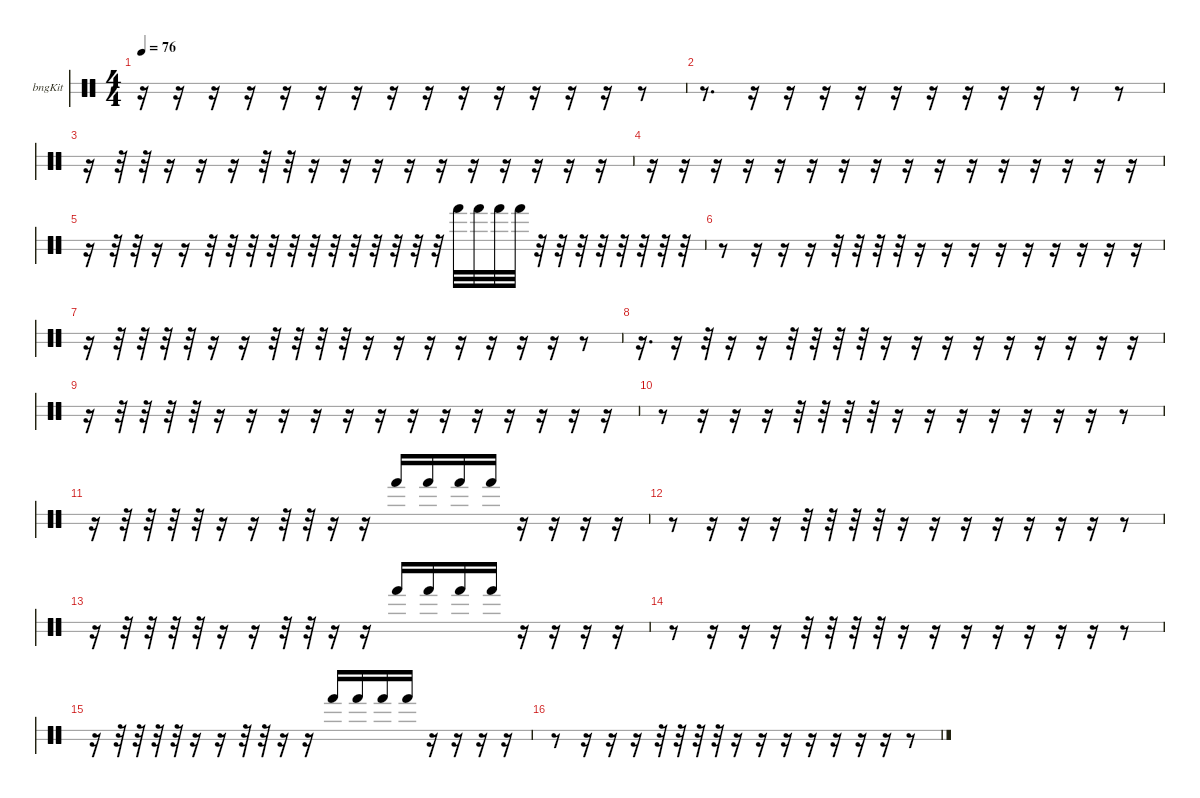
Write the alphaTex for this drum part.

\hideDynamics
\bracketExtendMode nobrackets
\firstSystemTrackNameOrientation horizontal
\otherSystemsTrackNameOrientation horizontal
\track ("Bongos" "bngKit") {instrument percussion}
\staff {score 2}
\articulation defaults
\ts (4 4)
\tempo 76
\clef neutral
\ks c
r.16{dy f beam Down} r.16{beam Down} r.16{beam Down} r.16{beam Down} r.16{beam Down} r.16{beam Down} r.16{beam Down} r.16{beam Down} r.16{beam Down} r.16{beam Down} r.16{beam Down} r.16{beam Down} r.16{beam Down} r.16{beam Down} r.8{beam Down} |
r.8{d beam Down} r.16{beam Down} r.16{beam Down} r.16{beam Down} r.16{beam Down} r.16{beam Down} r.16{beam Down} r.16{beam Down} r.16{beam Down} r.16{beam Down} r.8{beam Down} r.8{beam Down} |
r.16{beam Down} r.32{beam Down} r.32{beam Down} r.16{beam Down} r.16{beam Down} r.16{beam Down} r.32{beam Down} r.32{beam Down} r.16{beam Down} r.16{beam Down} r.16{beam Down} r.16{beam Down} r.16{beam Down} r.16{beam Down} r.16{beam Down} r.16{beam Down} r.16{beam Down} r.16{beam Down} |
r.16{beam Down} r.16{beam Down} r.16{beam Down} r.16{beam Down} r.16{beam Down} r.16{beam Down} r.16{beam Down} r.16{beam Down} r.16{beam Down} r.16{beam Down} r.16{beam Down} r.16{beam Down} r.16{beam Down} r.16{beam Down} r.16{beam Down} r.16{beam Down} |
r.16{beam Down} r.32{beam Down} r.32{beam Down} r.16{beam Down} r.16{beam Down} r.32{beam Down} r.32{beam Down} r.32{beam Down} r.32{beam Down} r.32{beam Down} r.32{beam Down} r.32{beam Down} r.32{beam Down} r.32{beam Down} r.32{beam Down} r.32{beam Down} r.32{beam Down} "Hand (hit)".32{beam Up} "Hand (hit)".32{beam Up} "Hand (hit)".32{beam Up} "Hand (hit)".32{beam Up} r.32{beam Up} r.32{beam Up} r.32{beam Up} r.32{beam Up} r.32{beam Up} r.32{beam Up} r.32{beam Up} r.32{beam Up} |
r.8{beam Down} r.16{beam Down} r.16{beam Down} r.16{beam Down} r.32{beam Down} r.32{beam Down} r.32{beam Down} r.32{beam Down} r.16{beam Down} r.16{beam Down} r.16{beam Down} r.16{beam Down} r.16{beam Down} r.16{beam Down} r.16{beam Down} r.16{beam Down} r.16{beam Down} |
r.16{beam Down} r.32{beam Down} r.32{beam Down} r.32{beam Down} r.32{beam Down} r.16{beam Down} r.16{beam Down} r.32{beam Down} r.32{beam Down} r.32{beam Down} r.32{beam Down} r.16{beam Down} r.16{beam Down} r.16{beam Down} r.16{beam Down} r.16{beam Down} r.16{beam Down} r.16{beam Down} r.8{beam Down} |
r.16{d beam Down} r.16{beam Down} r.32{beam Down} r.16{beam Down} r.16{beam Down} r.32{beam Down} r.32{beam Down} r.32{beam Down} r.32{beam Down} r.16{beam Down} r.16{beam Down} r.16{beam Down} r.16{beam Down} r.16{beam Down} r.16{beam Down} r.16{beam Down} r.16{beam Down} r.16{beam Down} |
r.16{beam Down} r.32{beam Down} r.32{beam Down} r.32{beam Down} r.32{beam Down} r.16{beam Down} r.16{beam Down} r.16{beam Down} r.16{beam Down} r.16{beam Down} r.16{beam Down} r.16{beam Down} r.16{beam Down} r.16{beam Down} r.16{beam Down} r.16{beam Down} r.16{beam Down} r.16{beam Down} |
r.8{beam Down} r.16{beam Down} r.16{beam Down} r.16{beam Down} r.32{beam Down} r.32{beam Down} r.32{beam Down} r.32{beam Down} r.16{beam Down} r.16{beam Down} r.16{beam Down} r.16{beam Down} r.16{beam Down} r.16{beam Down} r.16{beam Down} r.8{beam Down} |
r.16{beam Down} r.32{beam Down} r.32{beam Down} r.32{beam Down} r.32{beam Down} r.16{beam Down} r.16{beam Down} r.32{beam Down} r.32{beam Down} r.16{beam Down} r.16{beam Down} "Hand (hit)".16{beam Up} "Hand (hit)".16{beam Up} "Hand (hit)".16{beam Up} "Hand (hit)".16{beam Up} r.16{beam Up} r.16{beam Up} r.16{beam Up} r.16{beam Up} |
r.8{beam Down} r.16{beam Down} r.16{beam Down} r.16{beam Down} r.32{beam Down} r.32{beam Down} r.32{beam Down} r.32{beam Down} r.16{beam Down} r.16{beam Down} r.16{beam Down} r.16{beam Down} r.16{beam Down} r.16{beam Down} r.16{beam Down} r.8{beam Down} |
r.16{beam Down} r.32{beam Down} r.32{beam Down} r.32{beam Down} r.32{beam Down} r.16{beam Down} r.16{beam Down} r.32{beam Down} r.32{beam Down} r.16{beam Down} r.16{beam Down} "Hand (hit)".16{beam Up} "Hand (hit)".16{beam Up} "Hand (hit)".16{beam Up} "Hand (hit)".16{beam Up} r.16{beam Up} r.16{beam Up} r.16{beam Up} r.16{beam Up} |
r.8{beam Down} r.16{beam Down} r.16{beam Down} r.16{beam Down} r.32{beam Down} r.32{beam Down} r.32{beam Down} r.32{beam Down} r.16{beam Down} r.16{beam Down} r.16{beam Down} r.16{beam Down} r.16{beam Down} r.16{beam Down} r.16{beam Down} r.8{beam Down} |
r.16{beam Down} r.32{beam Down} r.32{beam Down} r.32{beam Down} r.32{beam Down} r.16{beam Down} r.16{beam Down} r.32{beam Down} r.32{beam Down} r.16{beam Down} r.16{beam Down} "Hand (hit)".16{beam Up} "Hand (hit)".16{beam Up} "Hand (hit)".16{beam Up} "Hand (hit)".16{beam Up} r.16{beam Up} r.16{beam Up} r.16{beam Up} r.16{beam Up} |
r.8{beam Down} r.16{beam Down} r.16{beam Down} r.16{beam Down} r.32{beam Down} r.32{beam Down} r.32{beam Down} r.32{beam Down} r.16{beam Down} r.16{beam Down} r.16{beam Down} r.16{beam Down} r.16{beam Down} r.16{beam Down} r.16{beam Down} r.8{beam Down}
